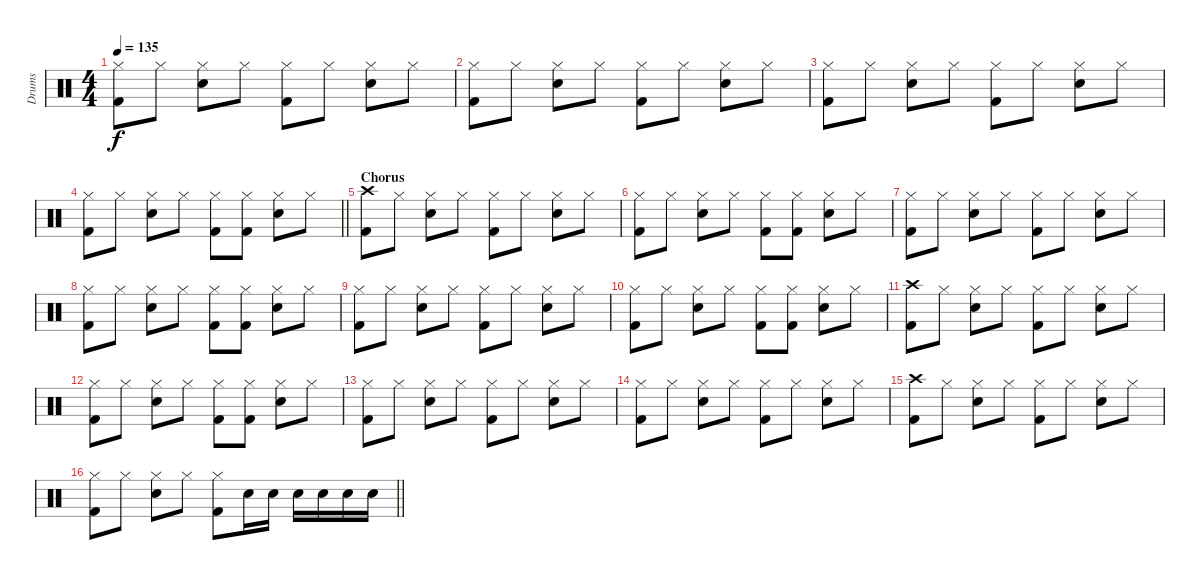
\track ("Drums" "Drums") {instrument percussion}
\staff {score}
\articulation defaults
\ts (4 4)
\tempo 135
\clef neutral
\ks c
("Hi-Hat (closed)" "Kick (hit) 2").8{dy f} "Hi-Hat (closed)".8 ("Hi-Hat (closed)" "Electric Snare (hit)").8 "Hi-Hat (closed)".8 ("Hi-Hat (closed)" "Kick (hit) 2").8 "Hi-Hat (closed)".8 ("Hi-Hat (closed)" "Electric Snare (hit)").8 "Hi-Hat (closed)".8 |
("Hi-Hat (closed)" "Kick (hit) 2").8 "Hi-Hat (closed)".8 ("Hi-Hat (closed)" "Electric Snare (hit)").8 "Hi-Hat (closed)".8 ("Hi-Hat (closed)" "Kick (hit) 2").8 "Hi-Hat (closed)".8 ("Hi-Hat (closed)" "Electric Snare (hit)").8 "Hi-Hat (closed)".8 |
("Hi-Hat (closed)" "Kick (hit) 2").8 "Hi-Hat (closed)".8 ("Hi-Hat (closed)" "Electric Snare (hit)").8 "Hi-Hat (closed)".8 ("Hi-Hat (closed)" "Kick (hit) 2").8 "Hi-Hat (closed)".8 ("Hi-Hat (closed)" "Electric Snare (hit)").8 "Hi-Hat (closed)".8 |
\barLineRight lightlight
("Hi-Hat (closed)" "Kick (hit) 2").8 "Hi-Hat (closed)".8 ("Hi-Hat (closed)" "Electric Snare (hit)").8 "Hi-Hat (closed)".8 ("Hi-Hat (closed)" "Kick (hit) 2").8 ("Hi-Hat (closed)" "Kick (hit) 2").8 ("Hi-Hat (closed)" "Electric Snare (hit)").8 "Hi-Hat (closed)".8 |
\section ("" "Chorus")
("Crash high (hit)" "Kick (hit) 2").8 "Hi-Hat (closed)".8 ("Hi-Hat (closed)" "Electric Snare (hit)").8 "Hi-Hat (closed)".8 ("Hi-Hat (closed)" "Kick (hit) 2").8 "Hi-Hat (closed)".8 ("Hi-Hat (closed)" "Electric Snare (hit)").8 "Hi-Hat (closed)".8 |
("Hi-Hat (closed)" "Kick (hit) 2").8 "Hi-Hat (closed)".8 ("Hi-Hat (closed)" "Electric Snare (hit)").8 "Hi-Hat (closed)".8 ("Hi-Hat (closed)" "Kick (hit) 2").8 ("Hi-Hat (closed)" "Kick (hit) 2").8 ("Hi-Hat (closed)" "Electric Snare (hit)").8 "Hi-Hat (closed)".8 |
("Hi-Hat (closed)" "Kick (hit) 2").8 "Hi-Hat (closed)".8 ("Hi-Hat (closed)" "Electric Snare (hit)").8 "Hi-Hat (closed)".8 ("Hi-Hat (closed)" "Kick (hit) 2").8 "Hi-Hat (closed)".8 ("Hi-Hat (closed)" "Electric Snare (hit)").8 "Hi-Hat (closed)".8 |
("Hi-Hat (closed)" "Kick (hit) 2").8 "Hi-Hat (closed)".8 ("Hi-Hat (closed)" "Electric Snare (hit)").8 "Hi-Hat (closed)".8 ("Hi-Hat (closed)" "Kick (hit) 2").8 ("Hi-Hat (closed)" "Kick (hit) 2").8 ("Hi-Hat (closed)" "Electric Snare (hit)").8 "Hi-Hat (closed)".8 |
("Hi-Hat (closed)" "Kick (hit) 2").8 "Hi-Hat (closed)".8 ("Hi-Hat (closed)" "Electric Snare (hit)").8 "Hi-Hat (closed)".8 ("Hi-Hat (closed)" "Kick (hit) 2").8 "Hi-Hat (closed)".8 ("Hi-Hat (closed)" "Electric Snare (hit)").8 "Hi-Hat (closed)".8 |
("Hi-Hat (closed)" "Kick (hit) 2").8 "Hi-Hat (closed)".8 ("Hi-Hat (closed)" "Electric Snare (hit)").8 "Hi-Hat (closed)".8 ("Hi-Hat (closed)" "Kick (hit) 2").8 ("Hi-Hat (closed)" "Kick (hit) 2").8 ("Hi-Hat (closed)" "Electric Snare (hit)").8 "Hi-Hat (closed)".8 |
("Crash high (hit)" "Kick (hit) 2").8 "Hi-Hat (closed)".8 ("Hi-Hat (closed)" "Electric Snare (hit)").8 "Hi-Hat (closed)".8 ("Hi-Hat (closed)" "Kick (hit) 2").8 "Hi-Hat (closed)".8 ("Hi-Hat (closed)" "Electric Snare (hit)").8 "Hi-Hat (closed)".8 |
("Hi-Hat (closed)" "Kick (hit) 2").8 "Hi-Hat (closed)".8 ("Hi-Hat (closed)" "Electric Snare (hit)").8 "Hi-Hat (closed)".8 ("Hi-Hat (closed)" "Kick (hit) 2").8 ("Hi-Hat (closed)" "Kick (hit) 2").8 ("Hi-Hat (closed)" "Electric Snare (hit)").8 "Hi-Hat (closed)".8 |
("Hi-Hat (closed)" "Kick (hit) 2").8 "Hi-Hat (closed)".8 ("Hi-Hat (closed)" "Electric Snare (hit)").8 "Hi-Hat (closed)".8 ("Hi-Hat (closed)" "Kick (hit) 2").8 "Hi-Hat (closed)".8 ("Hi-Hat (closed)" "Electric Snare (hit)").8 "Hi-Hat (closed)".8 |
("Hi-Hat (closed)" "Kick (hit) 2").8 "Hi-Hat (closed)".8 ("Hi-Hat (closed)" "Electric Snare (hit)").8 "Hi-Hat (closed)".8 ("Hi-Hat (closed)" "Kick (hit) 2").8 "Hi-Hat (closed)".8 ("Hi-Hat (closed)" "Electric Snare (hit)").8 "Hi-Hat (closed)".8 |
("Crash high (hit)" "Kick (hit) 2").8 "Hi-Hat (closed)".8 ("Hi-Hat (closed)" "Electric Snare (hit)").8 "Hi-Hat (closed)".8 ("Hi-Hat (closed)" "Kick (hit) 2").8 "Hi-Hat (closed)".8 ("Hi-Hat (closed)" "Electric Snare (hit)").8 "Hi-Hat (closed)".8 |
\barLineRight lightlight
("Hi-Hat (closed)" "Kick (hit) 2").8 "Hi-Hat (closed)".8 ("Hi-Hat (closed)" "Electric Snare (hit)").8 "Hi-Hat (closed)".8 ("Hi-Hat (closed)" "Kick (hit) 2").8 "Electric Snare (hit)".16 "Electric Snare (hit)".16 "Electric Snare (hit)".16 "Electric Snare (hit)".16 "Electric Snare (hit)".16 "Electric Snare (hit)".16
